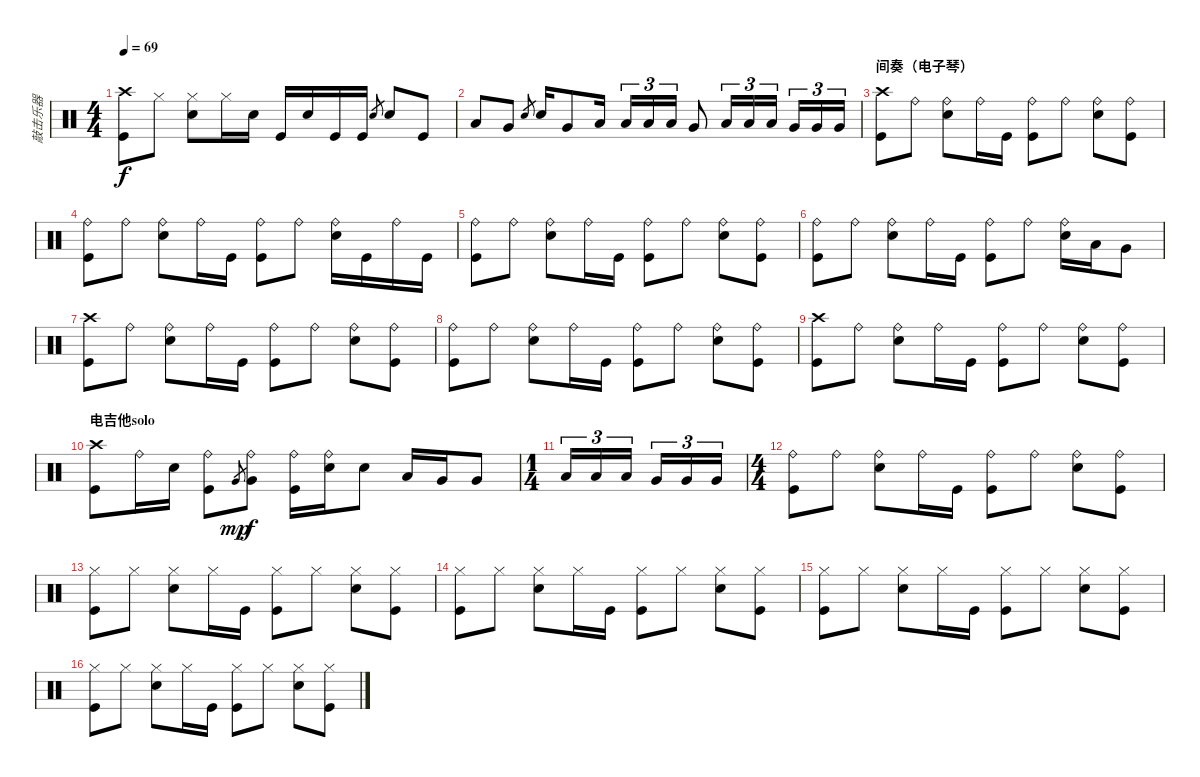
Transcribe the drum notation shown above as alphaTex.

\track ("敲击乐器" "敲击乐器") {instrument percussion}
\staff {score}
\articulation defaults
\ts (4 4)
\tempo 69
\clef neutral
\ks c
("Crash high (hit)" "Kick (hit)").8{dy f} "Hi-Hat (closed)".8 ("Hi-Hat (closed)" "Snare (hit) 2").8 "Hi-Hat (closed)".16 "Snare (hit) 2".16 "Kick (hit)".16 "Snare (hit) 2".16 "Kick (hit)".16 "Kick (hit)".16 "Snare (hit) 2".8{gr} "Snare (hit) 2".8 "Kick (hit)".8 |
"Low Tom (hit)".8 "Very Low Tom (hit)".8 "Snare (hit) 2".8{gr} "Snare (hit) 2".16 "Very Low Tom (hit)".8 "Low Floor Tom (hit)".16 "Low Tom (hit)".16{tu (3 2)} "Low Tom (hit)".16{tu (3 2)} "Low Tom (hit)".16{tu (3 2)} "Very Low Tom (hit)".8 "Low Tom (hit)".16{tu (3 2)} "Low Tom (hit)".16{tu (3 2)} "Low Tom (hit)".16{tu (3 2)} "Very Low Tom (hit)".16{tu (3 2)} "Very Low Tom (hit)".16{tu (3 2)} "Very Low Tom (hit)".16{tu (3 2)} |
\section ("" "间奏（电子琴）")
("Crash high (hit)" "Kick (hit)").8 "Ride (bell)".8 ("Ride (bell)" "Snare (hit) 2").8 "Ride (bell)".16 "Kick (hit)".16 ("Ride (bell)" "Kick (hit)").8 "Ride (bell)".8 ("Ride (bell)" "Snare (hit) 2").8 ("Ride (bell)" "Kick (hit)").8 |
("Ride (bell)" "Kick (hit)").8 "Ride (bell)".8 ("Ride (bell)" "Snare (hit) 2").8 "Ride (bell)".16 "Kick (hit)".16 ("Ride (bell)" "Kick (hit)").8 "Ride (bell)".8 ("Ride (bell)" "Snare (hit) 2").16 "Kick (hit)".16 "Ride (bell)".16 "Kick (hit)".16 |
("Ride (bell)" "Kick (hit)").8 "Ride (bell)".8 ("Ride (bell)" "Snare (hit) 2").8 "Ride (bell)".16 "Kick (hit)".16 ("Ride (bell)" "Kick (hit)").8 "Ride (bell)".8 ("Ride (bell)" "Snare (hit) 2").8 ("Ride (bell)" "Kick (hit)").8 |
("Ride (bell)" "Kick (hit)").8 "Ride (bell)".8 ("Ride (bell)" "Snare (hit) 2").8 "Ride (bell)".16 "Kick (hit)".16 ("Ride (bell)" "Kick (hit)").8 "Ride (bell)".8 ("Ride (bell)" "Snare (hit) 2").16 "Low Tom (hit)".16 "Very Low Tom (hit)".8 |
("Crash high (hit)" "Kick (hit)").8 "Ride (bell)".8 ("Ride (bell)" "Snare (hit) 2").8 "Ride (bell)".16 "Kick (hit)".16 ("Ride (bell)" "Kick (hit)").8 "Ride (bell)".8 ("Ride (bell)" "Snare (hit) 2").8 ("Ride (bell)" "Kick (hit)").8 |
("Ride (bell)" "Kick (hit)").8 "Ride (bell)".8 ("Ride (bell)" "Snare (hit) 2").8 "Ride (bell)".16 "Kick (hit)".16 ("Ride (bell)" "Kick (hit)").8 "Ride (bell)".8 ("Ride (bell)" "Snare (hit) 2").8 ("Ride (bell)" "Kick (hit)").8 |
("Crash high (hit)" "Kick (hit)").8 "Ride (bell)".8 ("Ride (bell)" "Snare (hit) 2").8 "Ride (bell)".16 "Kick (hit)".16 ("Ride (bell)" "Kick (hit)").8 "Ride (bell)".8 ("Ride (bell)" "Snare (hit) 2").8 ("Ride (bell)" "Kick (hit)").8 |
\section ("" "电吉他solo")
("Crash high (hit)" "Kick (hit)").8 "Ride (bell)".16 "Snare (hit) 2".16 ("Ride (bell)" "Kick (hit)").8 "Very Low Tom (hit)".8{gr dy mp} ("Ride (bell)" "Very Low Tom (hit)").8{dy f} ("Ride (bell)" "Kick (hit)").16 ("Ride (bell)" "Snare (hit) 2").16 "Snare (hit) 2".8 "Low Tom (hit)".16 "Very Low Tom (hit)".16 "Very Low Tom (hit)".8 |
\ts (1 4)
"Low Tom (hit)".16{tu (3 2)} "Low Tom (hit)".16{tu (3 2)} "Low Tom (hit)".16{tu (3 2)} "Very Low Tom (hit)".16{tu (3 2)} "Very Low Tom (hit)".16{tu (3 2)} "Very Low Tom (hit)".16{tu (3 2)} |
\ts (4 4)
("Ride (bell)" "Kick (hit)").8 "Ride (bell)".8 ("Ride (bell)" "Snare (hit) 2").8 "Ride (bell)".16 "Kick (hit)".16 ("Ride (bell)" "Kick (hit)").8 "Ride (bell)".8 ("Ride (bell)" "Snare (hit) 2").8 ("Ride (bell)" "Kick (hit)").8 |
("Hi-Hat (closed)" "Kick (hit)").8 "Hi-Hat (closed)".8 ("Hi-Hat (closed)" "Snare (hit) 2").8 "Hi-Hat (closed)".16 "Kick (hit)".16 ("Hi-Hat (closed)" "Kick (hit)").8 "Hi-Hat (closed)".8 ("Hi-Hat (closed)" "Snare (hit) 2").8 ("Hi-Hat (closed)" "Kick (hit)").8 |
("Hi-Hat (closed)" "Kick (hit)").8 "Hi-Hat (closed)".8 ("Hi-Hat (closed)" "Snare (hit) 2").8 "Hi-Hat (closed)".16 "Kick (hit)".16 ("Hi-Hat (closed)" "Kick (hit)").8 "Hi-Hat (closed)".8 ("Hi-Hat (closed)" "Snare (hit) 2").8 ("Hi-Hat (closed)" "Kick (hit)").8 |
("Hi-Hat (closed)" "Kick (hit)").8 "Hi-Hat (closed)".8 ("Hi-Hat (closed)" "Snare (hit) 2").8 "Hi-Hat (closed)".16 "Kick (hit)".16 ("Hi-Hat (closed)" "Kick (hit)").8 "Hi-Hat (closed)".8 ("Hi-Hat (closed)" "Snare (hit) 2").8 ("Hi-Hat (closed)" "Kick (hit)").8 |
("Hi-Hat (closed)" "Kick (hit)").8 "Hi-Hat (closed)".8 ("Hi-Hat (closed)" "Snare (hit) 2").8 "Hi-Hat (closed)".16 "Kick (hit)".16 ("Hi-Hat (closed)" "Kick (hit)").8 "Hi-Hat (closed)".8 ("Hi-Hat (closed)" "Snare (hit) 2").8 ("Hi-Hat (closed)" "Kick (hit)").8
